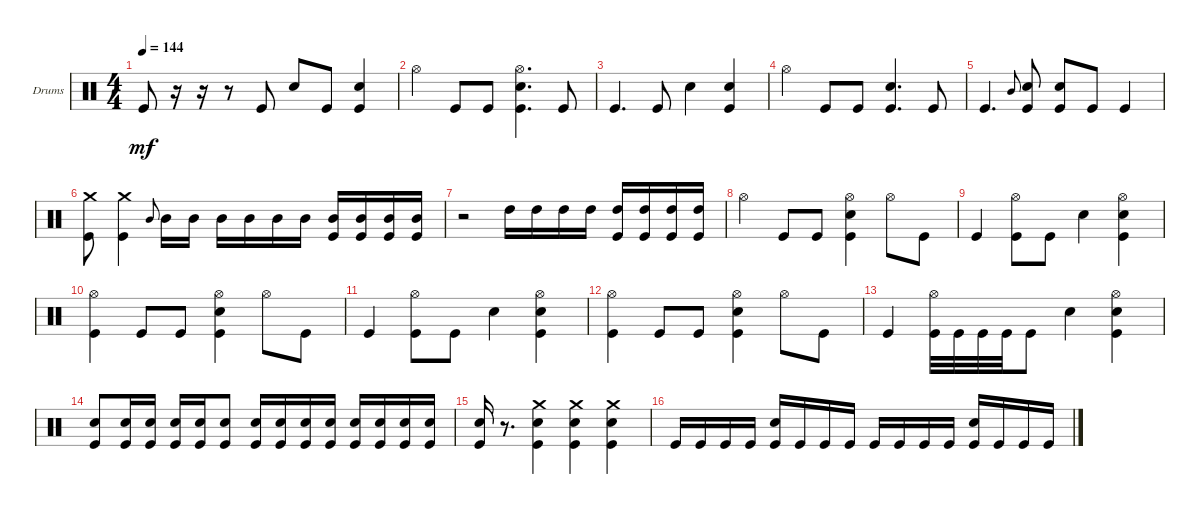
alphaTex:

\bracketExtendMode groupsimilarinstruments
\firstSystemTrackNameOrientation horizontal
\otherSystemsTrackNameOrientation horizontal
\track ("Drums" "Drums") {instrument percussion}
\staff {score}
\articulation defaults
\ts (4 4)
\tempo 144
\clef neutral
\ks c "Kick (hit)".8{dy mf}
r.16 r.16 r.8 "Kick (hit)".8 "Snare (hit) 2".8 "Kick (hit)".8 ("Kick (hit)" "Snare (hit) 2").4 |
"Hi-Hat (open)".4 "Kick (hit)".8 "Kick (hit)".8 ("Kick (hit)" "Snare (hit) 2" "Hi-Hat (open)").4{d} "Kick (hit)".8 |
"Kick (hit)".4{d} "Kick (hit)".8 "Snare (hit) 2".4 ("Kick (hit)" "Snare (hit) 2").4 |
"Hi-Hat (open)".4 "Kick (hit)".8 "Kick (hit)".8 ("Kick (hit)" "Snare (hit) 2").4{d} "Kick (hit)".8 |
"Kick (hit)".4{d} "Mid Tom (hit)".8{gr onbeat} ("Kick (hit)" "Snare (hit) 2").8 ("Kick (hit)" "Snare (hit) 2").8 "Kick (hit)".8 "Kick (hit)".4 |
("Kick (hit)" "Crash medium (hit)").8 ("Kick (hit)" "Crash medium (hit)").4 "Mid Tom (hit)".8{gr onbeat} "Mid Tom (hit)".16 "Mid Tom (hit)".16 "Mid Tom (hit)".16 "Mid Tom (hit)".16 "Mid Tom (hit)".16 "Mid Tom (hit)".16 ("Mid Tom (hit)" "Kick (hit)").16 ("Mid Tom (hit)" "Kick (hit)").16 ("Mid Tom (hit)" "Kick (hit)").16 ("Mid Tom (hit)" "Kick (hit)").16 |
r.2 "High Tom (hit)".16 "High Tom (hit)".16 "High Tom (hit)".16 "High Tom (hit)".16 ("Kick (hit)" "High Tom (hit)").16 ("Kick (hit)" "High Tom (hit)").16 ("Kick (hit)" "High Tom (hit)").16 ("Kick (hit)" "High Tom (hit)").16 |
"Hi-Hat (open)".4 "Kick (hit)".8 "Kick (hit)".8 ("Kick (hit)" "Snare (hit) 2" "Hi-Hat (open)").4 "Hi-Hat (open)".8 "Kick (hit)".8 |
"Kick (hit)".4 ("Kick (hit)" "Hi-Hat (open)").8 "Kick (hit)".8 "Snare (hit) 2".4 ("Kick (hit)" "Snare (hit) 2" "Hi-Hat (open)").4 |
("Kick (hit)" "Hi-Hat (open)").4 "Kick (hit)".8 "Kick (hit)".8 ("Kick (hit)" "Snare (hit) 2" "Hi-Hat (open)").4 "Hi-Hat (open)".8 "Kick (hit)".8 |
"Kick (hit)".4 ("Kick (hit)" "Hi-Hat (open)").8 "Kick (hit)".8 "Snare (hit) 2".4 ("Kick (hit)" "Snare (hit) 2" "Hi-Hat (open)").4 |
("Kick (hit)" "Hi-Hat (open)").4 "Kick (hit)".8 "Kick (hit)".8 ("Kick (hit)" "Snare (hit) 2" "Hi-Hat (open)").4 "Hi-Hat (open)".8 "Kick (hit)".8 |
"Kick (hit)".4 ("Kick (hit)" "Hi-Hat (open)").32 "Kick (hit)".32 "Kick (hit)".32 "Kick (hit)".32 "Kick (hit)".8 "Snare (hit) 2".4 ("Kick (hit)" "Snare (hit) 2" "Hi-Hat (open)").4 |
("Kick (hit)" "Snare (hit) 2").8 ("Kick (hit)" "Snare (hit) 2").16 ("Kick (hit)" "Snare (hit) 2").16 ("Kick (hit)" "Snare (hit) 2").16 ("Kick (hit)" "Snare (hit) 2").16 ("Kick (hit)" "Snare (hit) 2").8 ("Kick (hit)" "Snare (hit) 2").16 ("Kick (hit)" "Snare (hit) 2").16 ("Kick (hit)" "Snare (hit) 2").16 ("Kick (hit)" "Snare (hit) 2").16 ("Kick (hit)" "Snare (hit) 2").16 ("Kick (hit)" "Snare (hit) 2").16 ("Kick (hit)" "Snare (hit) 2").16 ("Kick (hit)" "Snare (hit) 2").16 |
("Kick (hit)" "Snare (hit) 2").16 r.8{d} ("Kick (hit)" "Crash medium (hit)" "Snare (hit) 2").4 ("Kick (hit)" "Crash medium (hit)" "Snare (hit) 2").4 ("Kick (hit)" "Crash medium (hit)" "Snare (hit) 2").4 |
"Kick (hit)".16 "Kick (hit)".16 "Kick (hit)".16 "Kick (hit)".16 ("Kick (hit)" "Snare (hit) 2").16 "Kick (hit)".16 "Kick (hit)".16 "Kick (hit)".16 "Kick (hit)".16 "Kick (hit)".16 "Kick (hit)".16 "Kick (hit)".16 ("Kick (hit)" "Snare (hit) 2").16 "Kick (hit)".16 "Kick (hit)".16 "Kick (hit)".16
